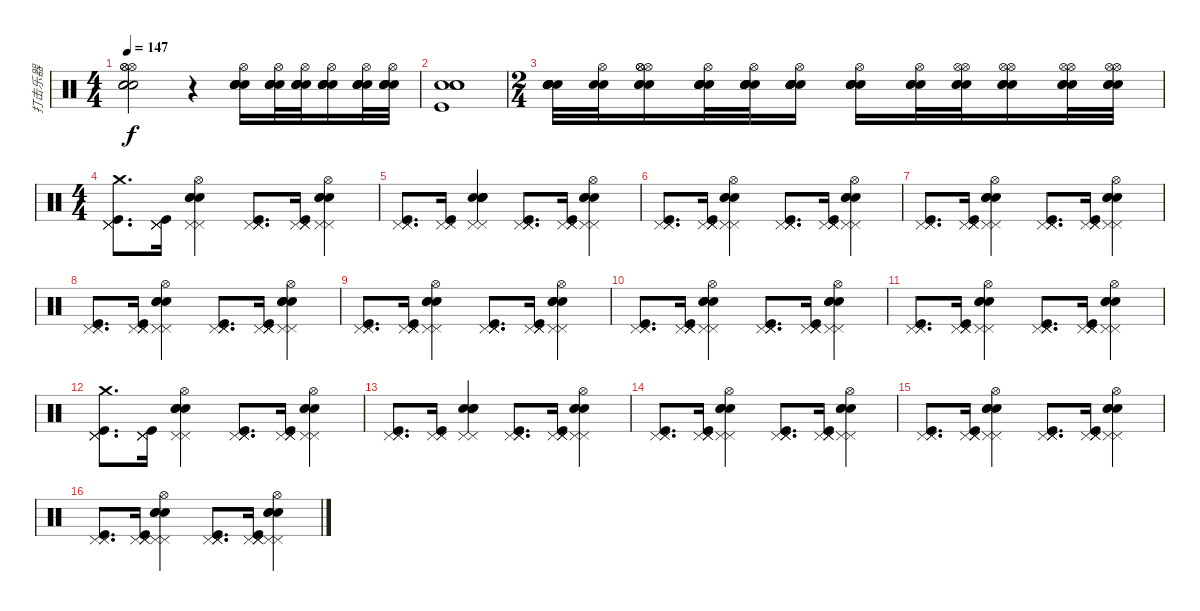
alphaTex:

\track ("打击乐器" "打击乐器") {instrument percussion}
\staff {score}
\articulation defaults
\ts (4 4)
\tempo 147
\clef neutral
\ks c
("Hi-Hat (open)" "Hi-Hat (open)" "Hi-Hat (open)" "Electric Snare (hit)" "Electric Snare (hit)" "Electric Snare (hit)").2{dy f} r.4 ("Electric Snare (hit)" "Hi-Hat (open)" "Electric Snare (hit)" "Electric Snare (hit)" "Electric Snare (hit)").16 ("Electric Snare (hit)" "Hi-Hat (open)" "Electric Snare (hit)" "Electric Snare (hit)" "Snare (hit)").32 ("Electric Snare (hit)" "Hi-Hat (open)" "Electric Snare (hit)" "Electric Snare (hit)" "Electric Snare (hit)").32 ("Electric Snare (hit)" "Hi-Hat (open)" "Electric Snare (hit)" "Electric Snare (hit)" "Electric Snare (hit)").16 ("Electric Snare (hit)" "Hi-Hat (open)" "Electric Snare (hit)" "Electric Snare (hit)" "Electric Snare (hit)").32 ("Electric Snare (hit)" "Hi-Hat (open)" "Electric Snare (hit)" "Electric Snare (hit)" "Electric Snare (hit)").32 |
("Electric Snare (hit)" "Electric Snare (hit)" "Electric Snare (hit)" "Kick (hit)").1 |
\ts (2 4)
("Electric Snare (hit)" "Electric Snare (hit)" "Electric Snare (hit)" "Electric Snare (hit)" "Electric Snare (hit)").32 ("Electric Snare (hit)" "Hi-Hat (open)" "Electric Snare (hit)").32 ("Electric Snare (hit)" "Hi-Hat (open)" "Hi-Hat (open)" "Hi-Hat (open)" "Electric Snare (hit)" "Electric Snare (hit)").16 ("Electric Snare (hit)" "Hi-Hat (open)" "Electric Snare (hit)" "Electric Snare (hit)" "Electric Snare (hit)" "Electric Snare (hit)").32 ("Electric Snare (hit)" "Hi-Hat (open)" "Electric Snare (hit)" "Electric Snare (hit)" "Electric Snare (hit)" "Electric Snare (hit)").32 ("Electric Snare (hit)" "Hi-Hat (open)" "Electric Snare (hit)" "Electric Snare (hit)" "Electric Snare (hit)" "Electric Snare (hit)").16 ("Electric Snare (hit)" "Hi-Hat (open)" "Electric Snare (hit)" "Electric Snare (hit)" "Electric Snare (hit)").16 ("Electric Snare (hit)" "Hi-Hat (open)" "Electric Snare (hit)" "Electric Snare (hit)").32 ("Hi-Hat (open)" "Electric Snare (hit)" "Electric Snare (hit)" "Electric Snare (hit)" "Hi-Hat (open)").32 ("Hi-Hat (open)" "Electric Snare (hit)" "Electric Snare (hit)" "Electric Snare (hit)" "Hi-Hat (open)").16 ("Hi-Hat (open)" "Electric Snare (hit)" "Electric Snare (hit)" "Electric Snare (hit)" "Hi-Hat (open)").32 ("Hi-Hat (open)" "Electric Snare (hit)" "Electric Snare (hit)" "Electric Snare (hit)" "Hi-Hat (open)").32 |
\ts (4 4)
("Pedal Hi-Hat (hit)" "Pedal Hi-Hat (hit)" "Pedal Hi-Hat (hit)" "Crash medium (hit)" "Kick (hit)").8{d} ("Pedal Hi-Hat (hit)" "Pedal Hi-Hat (hit)" "Pedal Hi-Hat (hit)" "Pedal Hi-Hat (hit)" "Kick (hit)").16 ("Electric Snare (hit)" "Electric Snare (hit)" "Electric Snare (hit)" "Hi-Hat (open)" "Pedal Hi-Hat (hit)" "Pedal Hi-Hat (hit)").4 ("Pedal Hi-Hat (hit)" "Pedal Hi-Hat (hit)" "Pedal Hi-Hat (hit)" "Pedal Hi-Hat (hit)" "Kick (hit)").8{d} ("Pedal Hi-Hat (hit)" "Pedal Hi-Hat (hit)" "Pedal Hi-Hat (hit)" "Pedal Hi-Hat (hit)" "Kick (hit)").16 ("Electric Snare (hit)" "Electric Snare (hit)" "Electric Snare (hit)" "Hi-Hat (open)" "Pedal Hi-Hat (hit)" "Pedal Hi-Hat (hit)").4 |
("Pedal Hi-Hat (hit)" "Pedal Hi-Hat (hit)" "Pedal Hi-Hat (hit)" "Kick (hit)").8{d} ("Pedal Hi-Hat (hit)" "Pedal Hi-Hat (hit)" "Pedal Hi-Hat (hit)" "Kick (hit)").16 ("Electric Snare (hit)" "Electric Snare (hit)" "Electric Snare (hit)" "Electric Snare (hit)" "Pedal Hi-Hat (hit)" "Pedal Hi-Hat (hit)").4 ("Pedal Hi-Hat (hit)" "Pedal Hi-Hat (hit)" "Pedal Hi-Hat (hit)" "Pedal Hi-Hat (hit)" "Kick (hit)").8{d} ("Pedal Hi-Hat (hit)" "Pedal Hi-Hat (hit)" "Pedal Hi-Hat (hit)" "Pedal Hi-Hat (hit)" "Kick (hit)").16 ("Electric Snare (hit)" "Electric Snare (hit)" "Electric Snare (hit)" "Hi-Hat (open)" "Pedal Hi-Hat (hit)" "Pedal Hi-Hat (hit)").4 |
("Pedal Hi-Hat (hit)" "Pedal Hi-Hat (hit)" "Pedal Hi-Hat (hit)" "Kick (hit)").8{d} ("Pedal Hi-Hat (hit)" "Pedal Hi-Hat (hit)" "Pedal Hi-Hat (hit)" "Pedal Hi-Hat (hit)" "Kick (hit)").16 ("Electric Snare (hit)" "Electric Snare (hit)" "Electric Snare (hit)" "Hi-Hat (open)" "Pedal Hi-Hat (hit)" "Pedal Hi-Hat (hit)").4 ("Pedal Hi-Hat (hit)" "Pedal Hi-Hat (hit)" "Pedal Hi-Hat (hit)" "Pedal Hi-Hat (hit)" "Kick (hit)").8{d} ("Pedal Hi-Hat (hit)" "Pedal Hi-Hat (hit)" "Pedal Hi-Hat (hit)" "Pedal Hi-Hat (hit)" "Kick (hit)").16 ("Electric Snare (hit)" "Electric Snare (hit)" "Electric Snare (hit)" "Hi-Hat (open)" "Pedal Hi-Hat (hit)" "Pedal Hi-Hat (hit)").4 |
("Pedal Hi-Hat (hit)" "Pedal Hi-Hat (hit)" "Pedal Hi-Hat (hit)" "Kick (hit)").8{d} ("Pedal Hi-Hat (hit)" "Pedal Hi-Hat (hit)" "Pedal Hi-Hat (hit)" "Pedal Hi-Hat (hit)" "Kick (hit)").16 ("Electric Snare (hit)" "Electric Snare (hit)" "Electric Snare (hit)" "Hi-Hat (open)" "Pedal Hi-Hat (hit)" "Pedal Hi-Hat (hit)").4 ("Pedal Hi-Hat (hit)" "Pedal Hi-Hat (hit)" "Pedal Hi-Hat (hit)" "Pedal Hi-Hat (hit)" "Kick (hit)").8{d} ("Pedal Hi-Hat (hit)" "Pedal Hi-Hat (hit)" "Pedal Hi-Hat (hit)" "Pedal Hi-Hat (hit)" "Kick (hit)").16 ("Electric Snare (hit)" "Electric Snare (hit)" "Electric Snare (hit)" "Hi-Hat (open)" "Pedal Hi-Hat (hit)" "Pedal Hi-Hat (hit)").4 |
("Pedal Hi-Hat (hit)" "Pedal Hi-Hat (hit)" "Pedal Hi-Hat (hit)" "Kick (hit)").8{d} ("Pedal Hi-Hat (hit)" "Pedal Hi-Hat (hit)" "Pedal Hi-Hat (hit)" "Pedal Hi-Hat (hit)" "Kick (hit)").16 ("Electric Snare (hit)" "Electric Snare (hit)" "Electric Snare (hit)" "Hi-Hat (open)" "Pedal Hi-Hat (hit)" "Pedal Hi-Hat (hit)").4 ("Pedal Hi-Hat (hit)" "Pedal Hi-Hat (hit)" "Pedal Hi-Hat (hit)" "Pedal Hi-Hat (hit)" "Kick (hit)").8{d} ("Pedal Hi-Hat (hit)" "Pedal Hi-Hat (hit)" "Pedal Hi-Hat (hit)" "Pedal Hi-Hat (hit)" "Kick (hit)").16 ("Electric Snare (hit)" "Electric Snare (hit)" "Electric Snare (hit)" "Hi-Hat (open)" "Pedal Hi-Hat (hit)" "Pedal Hi-Hat (hit)").4 |
("Pedal Hi-Hat (hit)" "Pedal Hi-Hat (hit)" "Pedal Hi-Hat (hit)" "Kick (hit)").8{d} ("Pedal Hi-Hat (hit)" "Pedal Hi-Hat (hit)" "Pedal Hi-Hat (hit)" "Pedal Hi-Hat (hit)" "Kick (hit)").16 ("Electric Snare (hit)" "Electric Snare (hit)" "Electric Snare (hit)" "Hi-Hat (open)" "Pedal Hi-Hat (hit)" "Pedal Hi-Hat (hit)").4 ("Pedal Hi-Hat (hit)" "Pedal Hi-Hat (hit)" "Pedal Hi-Hat (hit)" "Pedal Hi-Hat (hit)" "Kick (hit)").8{d} ("Pedal Hi-Hat (hit)" "Pedal Hi-Hat (hit)" "Pedal Hi-Hat (hit)" "Pedal Hi-Hat (hit)" "Kick (hit)").16 ("Electric Snare (hit)" "Electric Snare (hit)" "Electric Snare (hit)" "Hi-Hat (open)" "Pedal Hi-Hat (hit)" "Pedal Hi-Hat (hit)").4 |
("Pedal Hi-Hat (hit)" "Pedal Hi-Hat (hit)" "Pedal Hi-Hat (hit)" "Kick (hit)").8{d} ("Pedal Hi-Hat (hit)" "Pedal Hi-Hat (hit)" "Pedal Hi-Hat (hit)" "Pedal Hi-Hat (hit)" "Kick (hit)").16 ("Electric Snare (hit)" "Electric Snare (hit)" "Electric Snare (hit)" "Hi-Hat (open)" "Pedal Hi-Hat (hit)" "Pedal Hi-Hat (hit)").4 ("Pedal Hi-Hat (hit)" "Pedal Hi-Hat (hit)" "Pedal Hi-Hat (hit)" "Pedal Hi-Hat (hit)" "Kick (hit)").8{d} ("Pedal Hi-Hat (hit)" "Pedal Hi-Hat (hit)" "Pedal Hi-Hat (hit)" "Pedal Hi-Hat (hit)" "Kick (hit)").16 ("Electric Snare (hit)" "Electric Snare (hit)" "Electric Snare (hit)" "Hi-Hat (open)" "Pedal Hi-Hat (hit)" "Pedal Hi-Hat (hit)").4 |
("Pedal Hi-Hat (hit)" "Pedal Hi-Hat (hit)" "Pedal Hi-Hat (hit)" "Kick (hit)").8{d} ("Pedal Hi-Hat (hit)" "Pedal Hi-Hat (hit)" "Pedal Hi-Hat (hit)" "Pedal Hi-Hat (hit)" "Kick (hit)").16 ("Electric Snare (hit)" "Electric Snare (hit)" "Electric Snare (hit)" "Hi-Hat (open)" "Pedal Hi-Hat (hit)" "Pedal Hi-Hat (hit)").4 ("Pedal Hi-Hat (hit)" "Pedal Hi-Hat (hit)" "Pedal Hi-Hat (hit)" "Pedal Hi-Hat (hit)" "Kick (hit)").8{d} ("Pedal Hi-Hat (hit)" "Pedal Hi-Hat (hit)" "Pedal Hi-Hat (hit)" "Pedal Hi-Hat (hit)" "Kick (hit)").16 ("Electric Snare (hit)" "Electric Snare (hit)" "Electric Snare (hit)" "Hi-Hat (open)" "Pedal Hi-Hat (hit)" "Pedal Hi-Hat (hit)").4 |
("Pedal Hi-Hat (hit)" "Pedal Hi-Hat (hit)" "Pedal Hi-Hat (hit)" "Crash medium (hit)" "Kick (hit)").8{d} ("Pedal Hi-Hat (hit)" "Pedal Hi-Hat (hit)" "Pedal Hi-Hat (hit)" "Pedal Hi-Hat (hit)" "Kick (hit)").16 ("Electric Snare (hit)" "Electric Snare (hit)" "Electric Snare (hit)" "Hi-Hat (open)" "Pedal Hi-Hat (hit)" "Pedal Hi-Hat (hit)").4 ("Pedal Hi-Hat (hit)" "Pedal Hi-Hat (hit)" "Pedal Hi-Hat (hit)" "Pedal Hi-Hat (hit)" "Kick (hit)").8{d} ("Pedal Hi-Hat (hit)" "Pedal Hi-Hat (hit)" "Pedal Hi-Hat (hit)" "Pedal Hi-Hat (hit)" "Kick (hit)").16 ("Electric Snare (hit)" "Electric Snare (hit)" "Electric Snare (hit)" "Hi-Hat (open)" "Pedal Hi-Hat (hit)" "Pedal Hi-Hat (hit)").4 |
("Pedal Hi-Hat (hit)" "Pedal Hi-Hat (hit)" "Pedal Hi-Hat (hit)" "Kick (hit)").8{d} ("Pedal Hi-Hat (hit)" "Pedal Hi-Hat (hit)" "Pedal Hi-Hat (hit)" "Kick (hit)").16 ("Electric Snare (hit)" "Electric Snare (hit)" "Electric Snare (hit)" "Electric Snare (hit)" "Pedal Hi-Hat (hit)" "Pedal Hi-Hat (hit)").4 ("Pedal Hi-Hat (hit)" "Pedal Hi-Hat (hit)" "Pedal Hi-Hat (hit)" "Pedal Hi-Hat (hit)" "Kick (hit)").8{d} ("Pedal Hi-Hat (hit)" "Pedal Hi-Hat (hit)" "Pedal Hi-Hat (hit)" "Pedal Hi-Hat (hit)" "Kick (hit)").16 ("Electric Snare (hit)" "Electric Snare (hit)" "Electric Snare (hit)" "Hi-Hat (open)" "Pedal Hi-Hat (hit)" "Pedal Hi-Hat (hit)").4 |
("Pedal Hi-Hat (hit)" "Pedal Hi-Hat (hit)" "Pedal Hi-Hat (hit)" "Kick (hit)").8{d} ("Pedal Hi-Hat (hit)" "Pedal Hi-Hat (hit)" "Pedal Hi-Hat (hit)" "Pedal Hi-Hat (hit)" "Kick (hit)").16 ("Electric Snare (hit)" "Electric Snare (hit)" "Electric Snare (hit)" "Hi-Hat (open)" "Pedal Hi-Hat (hit)" "Pedal Hi-Hat (hit)").4 ("Pedal Hi-Hat (hit)" "Pedal Hi-Hat (hit)" "Pedal Hi-Hat (hit)" "Pedal Hi-Hat (hit)" "Kick (hit)").8{d} ("Pedal Hi-Hat (hit)" "Pedal Hi-Hat (hit)" "Pedal Hi-Hat (hit)" "Pedal Hi-Hat (hit)" "Kick (hit)").16 ("Electric Snare (hit)" "Electric Snare (hit)" "Electric Snare (hit)" "Hi-Hat (open)" "Pedal Hi-Hat (hit)" "Pedal Hi-Hat (hit)").4 |
("Pedal Hi-Hat (hit)" "Pedal Hi-Hat (hit)" "Pedal Hi-Hat (hit)" "Kick (hit)").8{d} ("Pedal Hi-Hat (hit)" "Pedal Hi-Hat (hit)" "Pedal Hi-Hat (hit)" "Pedal Hi-Hat (hit)" "Kick (hit)").16 ("Electric Snare (hit)" "Electric Snare (hit)" "Electric Snare (hit)" "Hi-Hat (open)" "Pedal Hi-Hat (hit)" "Pedal Hi-Hat (hit)").4 ("Pedal Hi-Hat (hit)" "Pedal Hi-Hat (hit)" "Pedal Hi-Hat (hit)" "Pedal Hi-Hat (hit)" "Kick (hit)").8{d} ("Pedal Hi-Hat (hit)" "Pedal Hi-Hat (hit)" "Pedal Hi-Hat (hit)" "Pedal Hi-Hat (hit)" "Kick (hit)").16 ("Electric Snare (hit)" "Electric Snare (hit)" "Electric Snare (hit)" "Hi-Hat (open)" "Pedal Hi-Hat (hit)" "Pedal Hi-Hat (hit)").4 |
("Pedal Hi-Hat (hit)" "Pedal Hi-Hat (hit)" "Pedal Hi-Hat (hit)" "Kick (hit)").8{d} ("Pedal Hi-Hat (hit)" "Pedal Hi-Hat (hit)" "Pedal Hi-Hat (hit)" "Pedal Hi-Hat (hit)" "Kick (hit)").16 ("Electric Snare (hit)" "Electric Snare (hit)" "Electric Snare (hit)" "Hi-Hat (open)" "Pedal Hi-Hat (hit)" "Pedal Hi-Hat (hit)").4 ("Pedal Hi-Hat (hit)" "Pedal Hi-Hat (hit)" "Pedal Hi-Hat (hit)" "Pedal Hi-Hat (hit)" "Kick (hit)").8{d} ("Pedal Hi-Hat (hit)" "Pedal Hi-Hat (hit)" "Pedal Hi-Hat (hit)" "Pedal Hi-Hat (hit)" "Kick (hit)").16 ("Electric Snare (hit)" "Electric Snare (hit)" "Electric Snare (hit)" "Hi-Hat (open)" "Pedal Hi-Hat (hit)" "Pedal Hi-Hat (hit)").4
